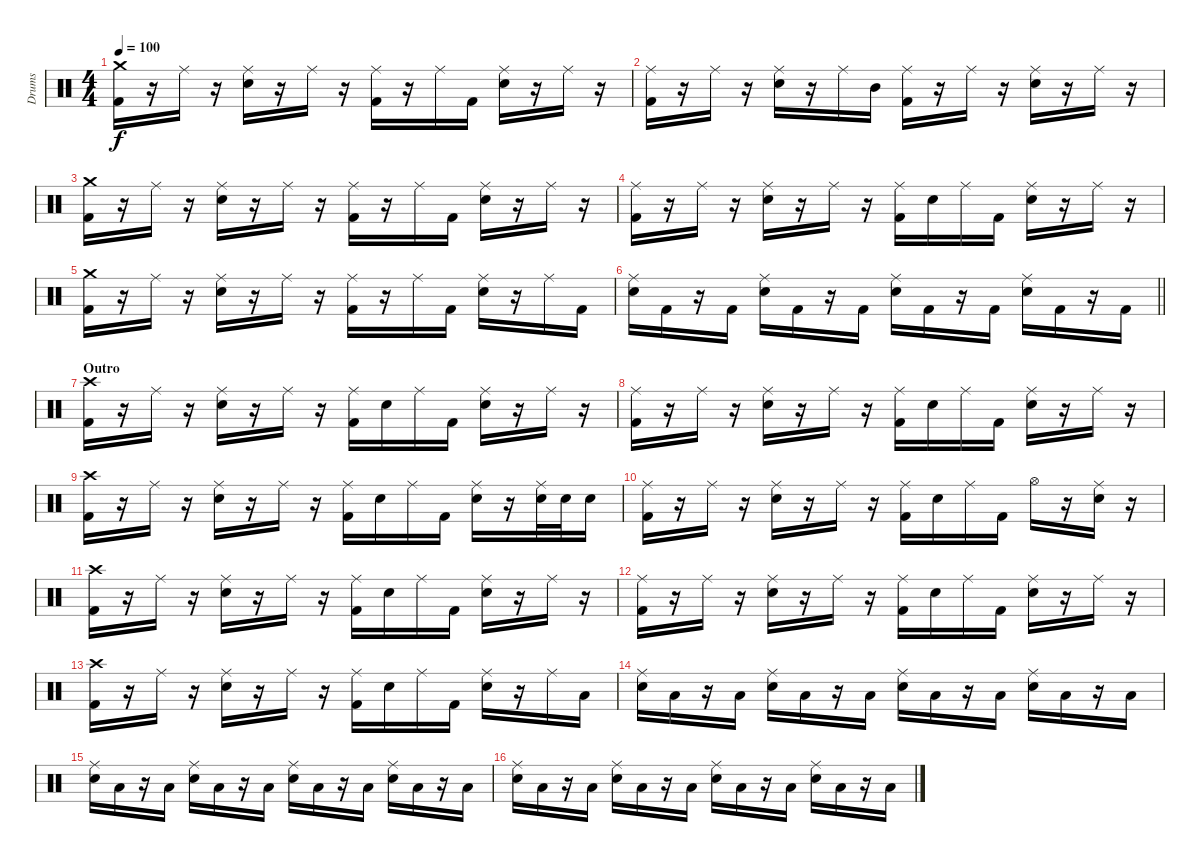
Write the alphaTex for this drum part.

\track ("Drums" "Drums") {instrument percussion}
\staff {score}
\articulation defaults
\ts (4 4)
\tempo 100
\clef neutral
\ks c
("Crash medium (hit)" "Kick (hit) 2").16{dy f} r.16 "Ride (middle)".16 r.16 ("Ride (middle)" "Snare (hit) 2").16 r.16 "Ride (middle)".16 r.16 ("Ride (middle)" "Kick (hit) 2").16 r.16 "Ride (middle)".16 "Kick (hit) 2".16 ("Ride (middle)" "Snare (hit) 2").16 r.16 "Ride (middle)".16 r.16 |
("Ride (middle)" "Kick (hit) 2").16 r.16 "Ride (middle)".16 r.16 ("Ride (middle)" "Snare (hit) 2").16 r.16 "Ride (middle)".16 "Mid Tom (hit)".16 ("Ride (middle)" "Kick (hit) 2").16 r.16 "Ride (middle)".16 r.16 ("Ride (middle)" "Snare (hit) 2").16 r.16 "Ride (middle)".16 r.16 |
("Crash medium (hit)" "Kick (hit) 2").16 r.16 "Ride (middle)".16 r.16 ("Ride (middle)" "Snare (hit) 2").16 r.16 "Ride (middle)".16 r.16 ("Ride (middle)" "Kick (hit) 2").16 r.16 "Ride (middle)".16 "Kick (hit) 2".16 ("Ride (middle)" "Snare (hit) 2").16 r.16 "Ride (middle)".16 r.16 |
("Ride (middle)" "Kick (hit) 2").16 r.16 "Ride (middle)".16 r.16 ("Ride (middle)" "Snare (hit) 2").16 r.16 "Ride (middle)".16 r.16 ("Ride (middle)" "Kick (hit) 2").16 "Snare (hit) 2".16 "Ride (middle)".16 "Kick (hit) 2".16 ("Ride (middle)" "Snare (hit) 2").16 r.16 "Ride (middle)".16 r.16 |
("Crash medium (hit)" "Kick (hit) 2").16 r.16 "Ride (middle)".16 r.16 ("Ride (middle)" "Snare (hit) 2").16 r.16 "Ride (middle)".16 r.16 ("Ride (middle)" "Kick (hit) 2").16 r.16 "Ride (middle)".16 "Kick (hit) 2".16 ("Ride (middle)" "Snare (hit) 2").16 r.16 "Ride (middle)".16 "Kick (hit) 2".16 |
\barLineRight lightlight
("Ride (middle)" "Snare (hit) 2").16 "Kick (hit) 2".16 r.16 "Kick (hit) 2".16 ("Ride (middle)" "Snare (hit) 2").16 "Kick (hit) 2".16 r.16 "Kick (hit) 2".16 ("Ride (middle)" "Snare (hit) 2").16 "Kick (hit) 2".16 r.16 "Kick (hit) 2".16 ("Ride (middle)" "Snare (hit) 2").16 "Kick (hit) 2".16 r.16 "Kick (hit) 2".16 |
\section ("" "Outro")
("Crash high (hit)" "Kick (hit) 2").16 r.16 "Ride (middle)".16 r.16 ("Ride (middle)" "Snare (hit) 2").16 r.16 "Ride (middle)".16 r.16 ("Ride (middle)" "Kick (hit) 2").16 "Snare (hit) 2".16 "Ride (middle)".16 "Kick (hit) 2".16 ("Ride (middle)" "Snare (hit) 2").16 r.16 "Ride (middle)".16 r.16 |
("Ride (middle)" "Kick (hit) 2").16 r.16 "Ride (middle)".16 r.16 ("Ride (middle)" "Snare (hit) 2").16 r.16 "Ride (middle)".16 r.16 ("Ride (middle)" "Kick (hit) 2").16 "Snare (hit) 2".16 "Ride (middle)".16 "Kick (hit) 2".16 ("Ride (middle)" "Snare (hit) 2").16 r.16 "Ride (middle)".16 r.16 |
("Crash high (hit)" "Kick (hit) 2").16 r.16 "Ride (middle)".16 r.16 ("Ride (middle)" "Snare (hit) 2").16 r.16 "Ride (middle)".16 r.16 ("Ride (middle)" "Kick (hit) 2").16 "Snare (hit) 2".16 "Ride (middle)".16 "Kick (hit) 2".16 ("Ride (middle)" "Snare (hit) 2").16 r.16 ("Ride (middle)" "Snare (hit) 2").32 "Snare (hit) 2".32 "Snare (hit) 2".16 |
("Ride (middle)" "Kick (hit) 2").16 r.16 "Ride (middle)".16 r.16 ("Ride (middle)" "Snare (hit) 2").16 r.16 "Ride (middle)".16 r.16 ("Ride (middle)" "Kick (hit) 2").16 "Snare (hit) 2".16 "Ride (middle)".16 "Kick (hit) 2".16 "Hi-Hat (open)".16 r.16 ("Ride (middle)" "Snare (hit) 2").16 r.16 |
("Crash high (hit)" "Kick (hit) 2").16 r.16 "Ride (middle)".16 r.16 ("Ride (middle)" "Snare (hit) 2").16 r.16 "Ride (middle)".16 r.16 ("Ride (middle)" "Kick (hit) 2").16 "Snare (hit) 2".16 "Ride (middle)".16 "Kick (hit) 2".16 ("Ride (middle)" "Snare (hit) 2").16 r.16 "Ride (middle)".16 r.16 |
("Ride (middle)" "Kick (hit) 2").16 r.16 "Ride (middle)".16 r.16 ("Ride (middle)" "Snare (hit) 2").16 r.16 "Ride (middle)".16 r.16 ("Ride (middle)" "Kick (hit) 2").16 "Snare (hit) 2".16 "Ride (middle)".16 "Kick (hit) 2".16 ("Ride (middle)" "Snare (hit) 2").16 r.16 "Ride (middle)".16 r.16 |
("Crash high (hit)" "Kick (hit) 2").16 r.16 "Ride (middle)".16 r.16 ("Ride (middle)" "Snare (hit) 2").16 r.16 "Ride (middle)".16 r.16 ("Ride (middle)" "Kick (hit) 2").16 "Snare (hit) 2".16 "Ride (middle)".16 "Kick (hit) 2".16 ("Ride (middle)" "Snare (hit) 2").16 r.16 "Ride (middle)".16 "Low Floor Tom (hit)".16 |
("Ride (middle)" "Snare (hit) 2").16 "Low Floor Tom (hit)".16 r.16 "Low Floor Tom (hit)".16 ("Ride (middle)" "Snare (hit) 2").16 "Low Floor Tom (hit)".16 r.16 "Low Floor Tom (hit)".16 ("Ride (middle)" "Snare (hit) 2").16 "Low Floor Tom (hit)".16 r.16 "Low Floor Tom (hit)".16 ("Ride (middle)" "Snare (hit) 2").16 "Low Floor Tom (hit)".16 r.16 "Low Floor Tom (hit)".16 |
("Ride (middle)" "Snare (hit) 2").16 "Low Floor Tom (hit)".16 r.16 "Low Floor Tom (hit)".16 ("Ride (middle)" "Snare (hit) 2").16 "Low Floor Tom (hit)".16 r.16 "Low Floor Tom (hit)".16 ("Ride (middle)" "Snare (hit) 2").16 "Low Floor Tom (hit)".16 r.16 "Low Floor Tom (hit)".16 ("Ride (middle)" "Snare (hit) 2").16 "Low Floor Tom (hit)".16 r.16 "Low Floor Tom (hit)".16 |
("Ride (middle)" "Snare (hit) 2").16 "Low Floor Tom (hit)".16 r.16 "Low Floor Tom (hit)".16 ("Ride (middle)" "Snare (hit) 2").16 "Low Floor Tom (hit)".16 r.16 "Low Floor Tom (hit)".16 ("Ride (middle)" "Snare (hit) 2").16 "Low Floor Tom (hit)".16 r.16 "Low Floor Tom (hit)".16 ("Ride (middle)" "Snare (hit) 2").16 "Low Floor Tom (hit)".16 r.16 "Low Floor Tom (hit)".16
